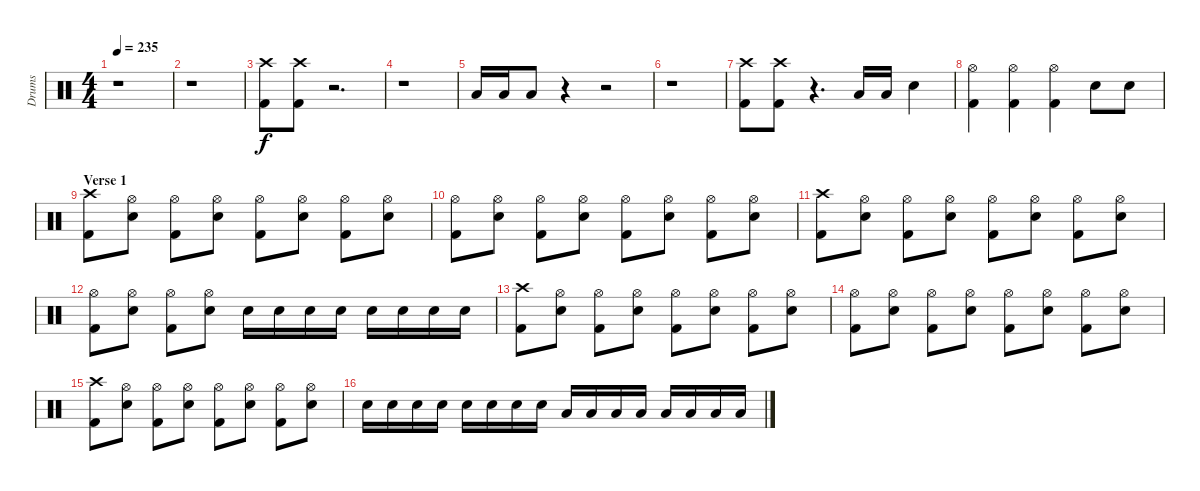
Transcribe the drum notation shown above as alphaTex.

\track ("Drums" "Drums") {instrument percussion}
\staff {score}
\articulation defaults
\ts (4 4)
\tempo 235
\clef neutral
\ks c
r.1{dy f} |
r.1 |
("Crash high (hit)" "Kick (hit) 2").8 ("Crash high (hit)" "Kick (hit) 2").8 r.2{d} |
r.1 |
"Low Floor Tom (hit)".16 "Low Floor Tom (hit)".16 "Low Floor Tom (hit)".8 r.4 r.2 |
r.1 |
("Crash high (hit)" "Kick (hit) 2").8 ("Crash high (hit)" "Kick (hit) 2").8 r.4{d} "Low Floor Tom (hit)".16 "Low Floor Tom (hit)".16 "Electric Snare (hit)".4 |
("Hi-Hat (open)" "Kick (hit) 2").4 ("Hi-Hat (open)" "Kick (hit) 2").4 ("Hi-Hat (open)" "Kick (hit) 2").4 "Electric Snare (hit)".8 "Electric Snare (hit)".8 |
\section ("" "Verse 1")
("Crash high (hit)" "Kick (hit) 2").8 ("Hi-Hat (open)" "Electric Snare (hit)").8 ("Hi-Hat (open)" "Kick (hit) 2").8 ("Hi-Hat (open)" "Electric Snare (hit)").8 ("Hi-Hat (open)" "Kick (hit) 2").8 ("Hi-Hat (open)" "Electric Snare (hit)").8 ("Hi-Hat (open)" "Kick (hit) 2").8 ("Hi-Hat (open)" "Electric Snare (hit)").8 |
("Hi-Hat (open)" "Kick (hit) 2").8 ("Hi-Hat (open)" "Electric Snare (hit)").8 ("Hi-Hat (open)" "Kick (hit) 2").8 ("Hi-Hat (open)" "Electric Snare (hit)").8 ("Hi-Hat (open)" "Kick (hit) 2").8 ("Hi-Hat (open)" "Electric Snare (hit)").8 ("Hi-Hat (open)" "Kick (hit) 2").8 ("Hi-Hat (open)" "Electric Snare (hit)").8 |
("Crash high (hit)" "Kick (hit) 2").8 ("Hi-Hat (open)" "Electric Snare (hit)").8 ("Hi-Hat (open)" "Kick (hit) 2").8 ("Hi-Hat (open)" "Electric Snare (hit)").8 ("Hi-Hat (open)" "Kick (hit) 2").8 ("Hi-Hat (open)" "Electric Snare (hit)").8 ("Hi-Hat (open)" "Kick (hit) 2").8 ("Hi-Hat (open)" "Electric Snare (hit)").8 |
("Hi-Hat (open)" "Kick (hit) 2").8 ("Hi-Hat (open)" "Electric Snare (hit)").8 ("Hi-Hat (open)" "Kick (hit) 2").8 ("Hi-Hat (open)" "Electric Snare (hit)").8 "Electric Snare (hit)".16 "Electric Snare (hit)".16 "Electric Snare (hit)".16 "Electric Snare (hit)".16 "Electric Snare (hit)".16 "Electric Snare (hit)".16 "Electric Snare (hit)".16 "Electric Snare (hit)".16 |
("Crash high (hit)" "Kick (hit) 2").8 ("Hi-Hat (open)" "Electric Snare (hit)").8 ("Hi-Hat (open)" "Kick (hit) 2").8 ("Hi-Hat (open)" "Electric Snare (hit)").8 ("Hi-Hat (open)" "Kick (hit) 2").8 ("Hi-Hat (open)" "Electric Snare (hit)").8 ("Hi-Hat (open)" "Kick (hit) 2").8 ("Hi-Hat (open)" "Electric Snare (hit)").8 |
("Hi-Hat (open)" "Kick (hit) 2").8 ("Hi-Hat (open)" "Electric Snare (hit)").8 ("Hi-Hat (open)" "Kick (hit) 2").8 ("Hi-Hat (open)" "Electric Snare (hit)").8 ("Hi-Hat (open)" "Kick (hit) 2").8 ("Hi-Hat (open)" "Electric Snare (hit)").8 ("Hi-Hat (open)" "Kick (hit) 2").8 ("Hi-Hat (open)" "Electric Snare (hit)").8 |
("Crash high (hit)" "Kick (hit) 2").8 ("Hi-Hat (open)" "Electric Snare (hit)").8 ("Hi-Hat (open)" "Kick (hit) 2").8 ("Hi-Hat (open)" "Electric Snare (hit)").8 ("Hi-Hat (open)" "Kick (hit) 2").8 ("Hi-Hat (open)" "Electric Snare (hit)").8 ("Hi-Hat (open)" "Kick (hit) 2").8 ("Hi-Hat (open)" "Electric Snare (hit)").8 |
"Electric Snare (hit)".16 "Electric Snare (hit)".16 "Electric Snare (hit)".16 "Electric Snare (hit)".16 "Electric Snare (hit)".16 "Electric Snare (hit)".16 "Electric Snare (hit)".16 "Electric Snare (hit)".16 "Low Floor Tom (hit)".16 "Low Floor Tom (hit)".16 "Low Floor Tom (hit)".16 "Low Floor Tom (hit)".16 "Low Floor Tom (hit)".16 "Low Floor Tom (hit)".16 "Low Floor Tom (hit)".16 "Low Floor Tom (hit)".16
